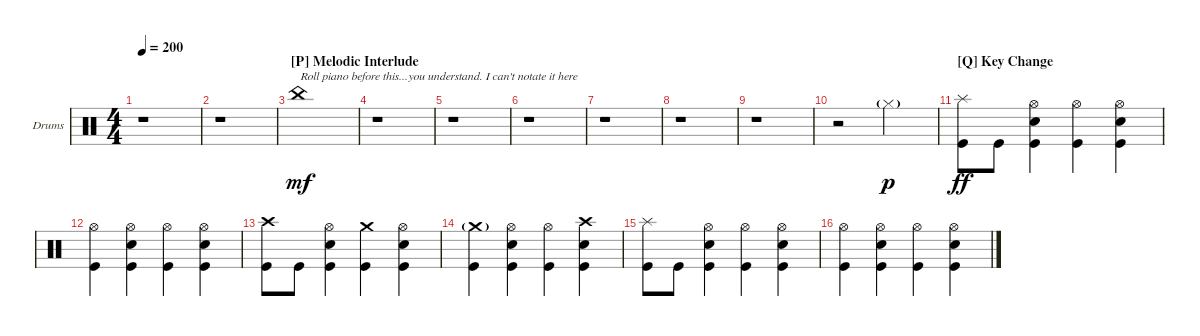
\defaultSystemsLayout 4
\bracketExtendMode groupsimilarinstruments
\firstSystemTrackNameOrientation horizontal
\otherSystemsTrackNameOrientation horizontal
\track ("Drumkit" "Drums") {instrument percussion}
\staff {score}
\articulation defaults
\ts (4 4)
\tempo 200
\clef neutral
\ks c
r.1{dy f} |
r.1 |
\section ("P" "Melodic Interlude")
"China (hit)".1{txt "Roll piano before this...you understand. I can't notate it here" dy mf} |
r.1 |
r.1 |
r.1 |
r.1 |
r.1 |
r.1 |
r.2 "Hi-Hat (closed)"{g}.2{dy p} |
\section ("Q" "Key Change")
("Splash (hit)" "Kick (hit)").8{dy ff} "Kick (hit)".8 ("Kick (hit)" "Snare (hit) 2" "Hi-Hat (open)").4 ("Kick (hit)" "Hi-Hat (open)").4 ("Kick (hit)" "Snare (hit) 2" "Hi-Hat (open)").4 |
("Kick (hit)" "Hi-Hat (open)").4 ("Kick (hit)" "Snare (hit) 2" "Hi-Hat (open)").4 ("Kick (hit)" "Hi-Hat (open)").4 ("Kick (hit)" "Snare (hit) 2" "Hi-Hat (open)").4 |
("Kick (hit)" "Crash high (hit)").8 "Kick (hit)".8 ("Kick (hit)" "Snare (hit) 2" "Hi-Hat (open)").4 ("Kick (hit)" "Crash medium (hit)").4 ("Kick (hit)" "Snare (hit) 2" "Hi-Hat (open)").4 |
("Kick (hit)" "Crash medium (hit)"{g}).4 ("Kick (hit)" "Snare (hit) 2" "Hi-Hat (open)").4 ("Kick (hit)" "Hi-Hat (open)").4 ("Kick (hit)" "Snare (hit) 2" "Crash high (hit)").4 |
("Splash (hit)" "Kick (hit)").8 "Kick (hit)".8 ("Kick (hit)" "Snare (hit) 2" "Hi-Hat (open)").4 ("Kick (hit)" "Hi-Hat (open)").4 ("Kick (hit)" "Snare (hit) 2" "Hi-Hat (open)").4 |
("Kick (hit)" "Hi-Hat (open)").4 ("Kick (hit)" "Snare (hit) 2" "Hi-Hat (open)").4 ("Kick (hit)" "Hi-Hat (open)").4 ("Kick (hit)" "Snare (hit) 2" "Hi-Hat (open)").4
